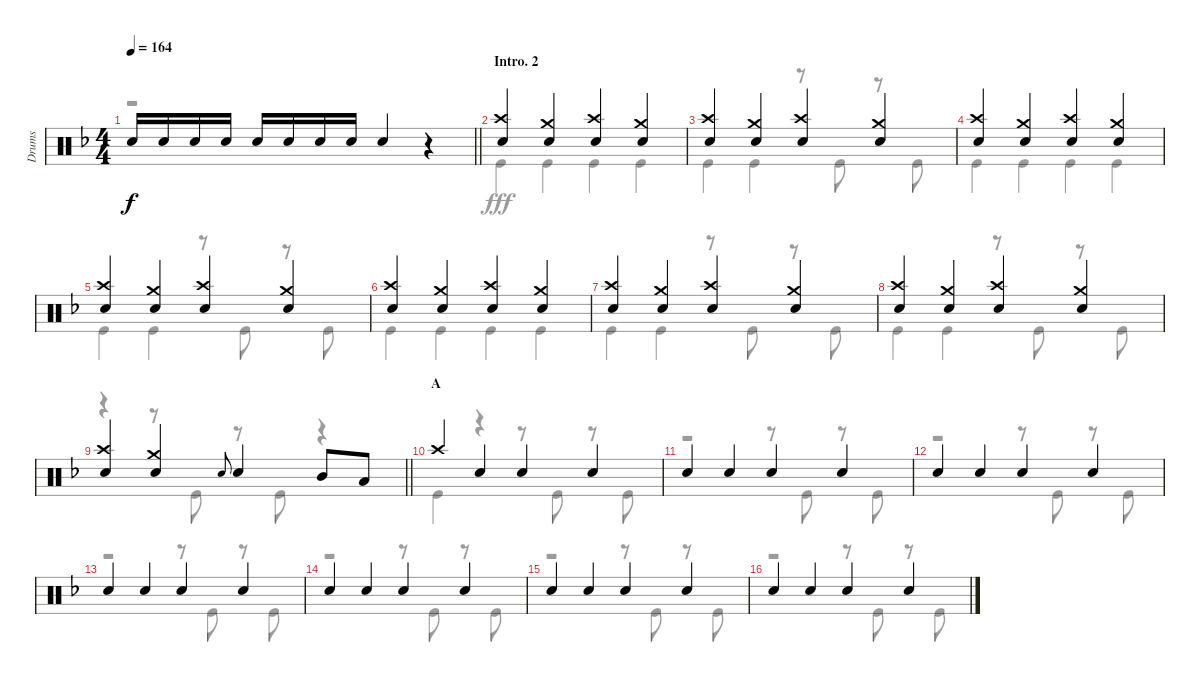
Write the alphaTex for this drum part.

\track ("Drums" "Drums") {instrument percussion}
\staff {score}
\articulation defaults
\voice
\ts (4 4)
\tempo 164
\clef neutral
\barLineRight lightlight
\ks f "Snare (hit) 2".16{dy f} "Snare (hit) 2".16 "Snare (hit) 2".16 "Snare (hit) 2".16 "Snare (hit) 2".16 "Snare (hit) 2".16 "Snare (hit) 2".16 "Snare (hit) 2".16 "Snare (hit) 2".4
r.4 |
\section ("" "Intro. 2")
("Crash high (hit)" "Snare (hit) 2").4 ("Crash medium (hit)" "Snare (hit) 2").4 ("Crash high (hit)" "Snare (hit) 2").4 ("Crash medium (hit)" "Snare (hit) 2").4 |
("Crash high (hit)" "Snare (hit) 2").4 ("Crash medium (hit)" "Snare (hit) 2").4 ("Crash high (hit)" "Snare (hit) 2").4 ("Crash medium (hit)" "Snare (hit) 2").4 |
("Crash high (hit)" "Snare (hit) 2").4 ("Crash medium (hit)" "Snare (hit) 2").4 ("Crash high (hit)" "Snare (hit) 2").4 ("Crash medium (hit)" "Snare (hit) 2").4 |
("Crash high (hit)" "Snare (hit) 2").4 ("Crash medium (hit)" "Snare (hit) 2").4 ("Crash high (hit)" "Snare (hit) 2").4 ("Crash medium (hit)" "Snare (hit) 2").4 |
("Crash high (hit)" "Snare (hit) 2").4 ("Crash medium (hit)" "Snare (hit) 2").4 ("Crash high (hit)" "Snare (hit) 2").4 ("Crash medium (hit)" "Snare (hit) 2").4 |
("Crash high (hit)" "Snare (hit) 2").4 ("Crash medium (hit)" "Snare (hit) 2").4 ("Crash high (hit)" "Snare (hit) 2").4 ("Crash medium (hit)" "Snare (hit) 2").4 |
("Crash high (hit)" "Snare (hit) 2").4 ("Crash medium (hit)" "Snare (hit) 2").4 ("Crash high (hit)" "Snare (hit) 2").4 ("Crash medium (hit)" "Snare (hit) 2").4 |
\barLineRight lightlight
("Crash high (hit)" "Snare (hit) 2").4 ("Crash medium (hit)" "Snare (hit) 2").4 "Snare (hit) 2".8{gr onbeat} "Snare (hit) 2".4 "Mid Tom (hit)".8 "Low Tom (hit)".8 |
\section ("" "A")
"Crash high (hit)".4 "Snare (hit) 2".4 "Snare (hit) 2".4 "Snare (hit) 2".4 |
"Snare (hit) 2".4 "Snare (hit) 2".4 "Snare (hit) 2".4 "Snare (hit) 2".4 |
"Snare (hit) 2".4 "Snare (hit) 2".4 "Snare (hit) 2".4 "Snare (hit) 2".4 |
"Snare (hit) 2".4 "Snare (hit) 2".4 "Snare (hit) 2".4 "Snare (hit) 2".4 |
"Snare (hit) 2".4 "Snare (hit) 2".4 "Snare (hit) 2".4 "Snare (hit) 2".4 |
"Snare (hit) 2".4 "Snare (hit) 2".4 "Snare (hit) 2".4 "Snare (hit) 2".4 |
"Snare (hit) 2".4 "Snare (hit) 2".4 "Snare (hit) 2".4 "Snare (hit) 2".4
\voice
\clef neutral
\ottava regular
\simile none
\barLineRight lightlight
\ks f
r.1{dy fff} |
"Kick (hit)".4 "Kick (hit)".4 "Kick (hit)".4 "Kick (hit)".4 |
"Kick (hit)".4 "Kick (hit)".4 r.8 "Kick (hit)".8 r.8 "Kick (hit)".8 |
"Kick (hit)".4 "Kick (hit)".4 "Kick (hit)".4 "Kick (hit)".4 |
"Kick (hit)".4 "Kick (hit)".4 r.8 "Kick (hit)".8 r.8 "Kick (hit)".8 |
"Kick (hit)".4 "Kick (hit)".4 "Kick (hit)".4 "Kick (hit)".4 |
"Kick (hit)".4 "Kick (hit)".4 r.8 "Kick (hit)".8 r.8 "Kick (hit)".8 |
"Kick (hit)".4 "Kick (hit)".4 r.8 "Kick (hit)".8 r.8 "Kick (hit)".8 |
\barLineRight lightlight
r.4 r.8 "Kick (hit)".8 r.8 "Kick (hit)".8 r.4 |
"Kick (hit)".4 r.4 r.8 "Kick (hit)".8 r.8 "Kick (hit)".8 |
r.2 r.8 "Kick (hit)".8 r.8 "Kick (hit)".8 |
r.2 r.8 "Kick (hit)".8 r.8 "Kick (hit)".8 |
r.2 r.8 "Kick (hit)".8 r.8 "Kick (hit)".8 |
r.2 r.8 "Kick (hit)".8 r.8 "Kick (hit)".8 |
r.2 r.8 "Kick (hit)".8 r.8 "Kick (hit)".8 |
r.2 r.8 "Kick (hit)".8 r.8 "Kick (hit)".8
